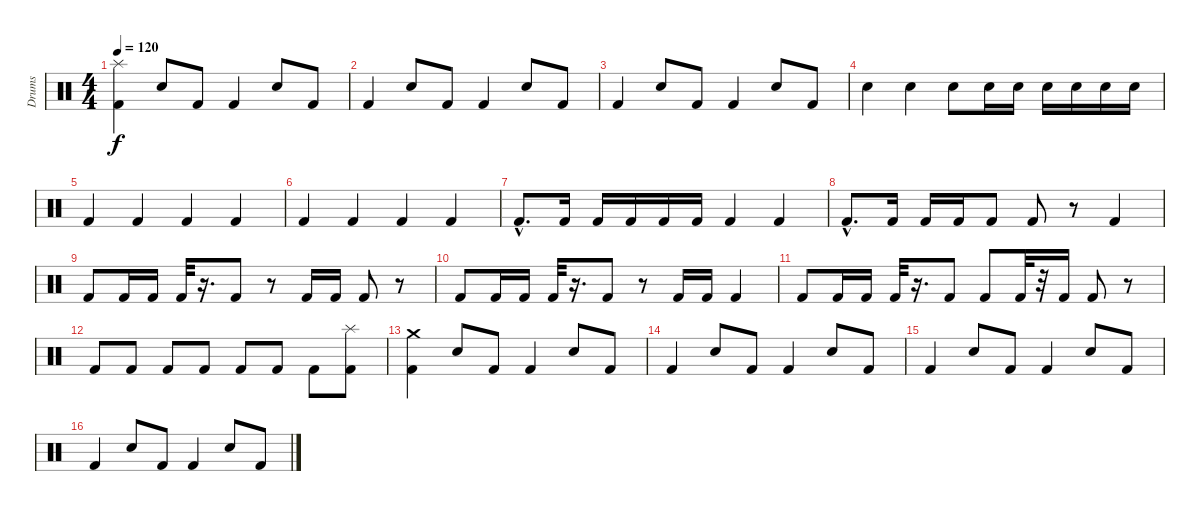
\track ("Drums" "Drums") {instrument percussion}
\staff {score}
\articulation defaults
\ts (4 4)
\tempo 120
\clef neutral
\ks c
("Splash (hit)" "Kick (hit) 2").4{dy f} "Snare (hit) 2".8 "Kick (hit) 2".8 "Kick (hit) 2".4 "Snare (hit) 2".8 "Kick (hit) 2".8 |
"Kick (hit) 2".4 "Snare (hit) 2".8 "Kick (hit) 2".8 "Kick (hit) 2".4 "Snare (hit) 2".8 "Kick (hit) 2".8 |
"Kick (hit) 2".4 "Snare (hit) 2".8 "Kick (hit) 2".8 "Kick (hit) 2".4 "Snare (hit) 2".8 "Kick (hit) 2".8 |
"Snare (hit) 2".4 "Snare (hit) 2".4 "Snare (hit) 2".8 "Snare (hit) 2".16 "Snare (hit) 2".16 "Snare (hit) 2".16 "Snare (hit) 2".16 "Snare (hit) 2".16 "Snare (hit) 2".16 |
"Kick (hit) 2".4 "Kick (hit) 2".4 "Kick (hit) 2".4 "Kick (hit) 2".4 |
"Kick (hit) 2".4 "Kick (hit) 2".4 "Kick (hit) 2".4 "Kick (hit) 2".4 |
"Kick (hit) 2"{hac}.8{d} "Kick (hit) 2".16 "Kick (hit) 2".16 "Kick (hit) 2".16 "Kick (hit) 2".16 "Kick (hit) 2".16 "Kick (hit) 2".4 "Kick (hit) 2".4 |
"Kick (hit) 2"{hac}.8{d} "Kick (hit) 2".16 "Kick (hit) 2".16 "Kick (hit) 2".16 "Kick (hit) 2".8 "Kick (hit) 2".8 r.8 "Kick (hit) 2".4 |
"Kick (hit) 2".8 "Kick (hit) 2".16 "Kick (hit) 2".16 "Kick (hit) 2".32 r.16{d} "Kick (hit) 2".8 r.8 "Kick (hit) 2".16 "Kick (hit) 2".16 "Kick (hit) 2".8 r.8 |
"Kick (hit) 2".8 "Kick (hit) 2".16 "Kick (hit) 2".16 "Kick (hit) 2".32 r.16{d} "Kick (hit) 2".8 r.8 "Kick (hit) 2".16 "Kick (hit) 2".16 "Kick (hit) 2".4 |
"Kick (hit) 2".8 "Kick (hit) 2".16 "Kick (hit) 2".16 "Kick (hit) 2".32 r.16{d} "Kick (hit) 2".8 "Kick (hit) 2".8 "Kick (hit) 2".32 r.32 "Kick (hit) 2".16 "Kick (hit) 2".8 r.8 |
"Kick (hit) 2".8 "Kick (hit) 2".8 "Kick (hit) 2".8 "Kick (hit) 2".8 "Kick (hit) 2".8 "Kick (hit) 2".8 "Kick (hit) 2".8 ("Splash (hit)" "Kick (hit) 2").8 |
("Crash medium (hit)" "Kick (hit) 2").4 "Snare (hit) 2".8 "Kick (hit) 2".8 "Kick (hit) 2".4 "Snare (hit) 2".8 "Kick (hit) 2".8 |
"Kick (hit) 2".4 "Snare (hit) 2".8 "Kick (hit) 2".8 "Kick (hit) 2".4 "Snare (hit) 2".8 "Kick (hit) 2".8 |
"Kick (hit) 2".4 "Snare (hit) 2".8 "Kick (hit) 2".8 "Kick (hit) 2".4 "Snare (hit) 2".8 "Kick (hit) 2".8 |
"Kick (hit) 2".4 "Snare (hit) 2".8 "Kick (hit) 2".8 "Kick (hit) 2".4 "Snare (hit) 2".8 "Kick (hit) 2".8
